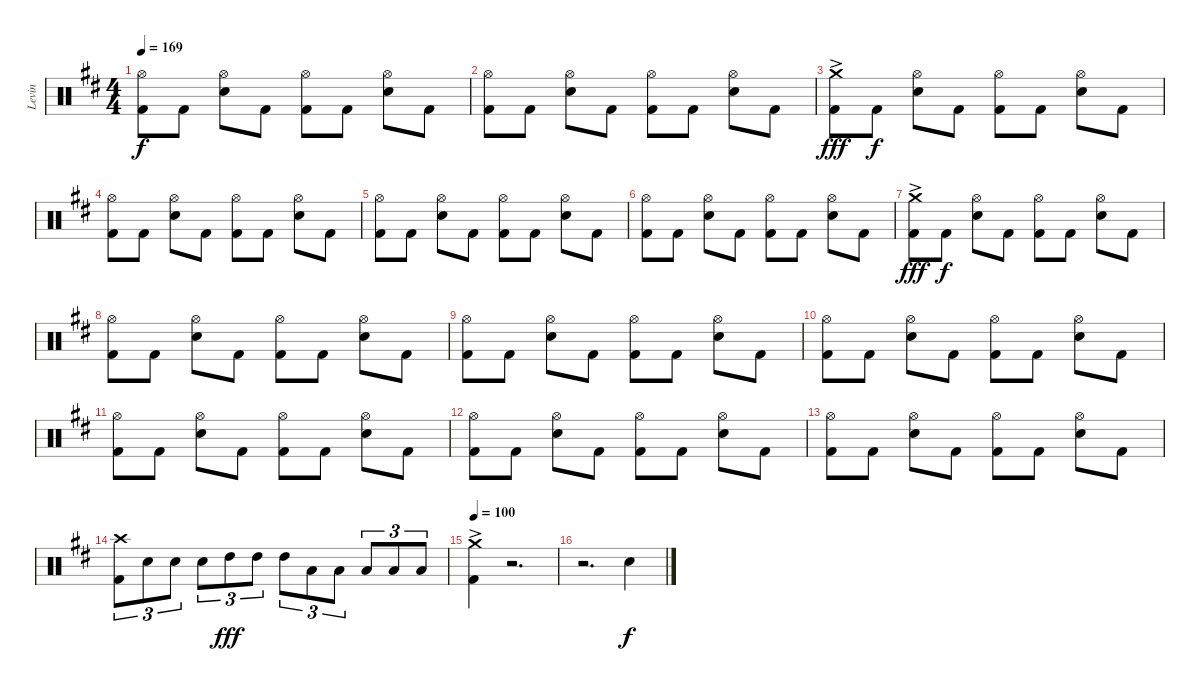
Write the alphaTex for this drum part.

\track ("Levin" "Levin") {instrument percussion}
\staff {score}
\articulation defaults
\ts (4 4)
\tempo 169
\clef neutral
\ks d
("Hi-Hat (open)" "Kick (hit) 2").8{dy f} "Kick (hit) 2".8 ("Hi-Hat (open)" "Electric Snare (hit)").8 "Kick (hit) 2".8 ("Hi-Hat (open)" "Kick (hit) 2").8 "Kick (hit) 2".8 ("Hi-Hat (open)" "Electric Snare (hit)").8 "Kick (hit) 2".8 |
("Hi-Hat (open)" "Kick (hit) 2").8 "Kick (hit) 2".8 ("Hi-Hat (open)" "Electric Snare (hit)").8 "Kick (hit) 2".8 ("Hi-Hat (open)" "Kick (hit) 2").8 "Kick (hit) 2".8 ("Hi-Hat (open)" "Electric Snare (hit)").8 "Kick (hit) 2".8 |
("Crash medium (hit)"{ac} "Kick (hit) 2").8{dy fff} "Kick (hit) 2".8{dy f} ("Hi-Hat (open)" "Electric Snare (hit)").8 "Kick (hit) 2".8 ("Hi-Hat (open)" "Kick (hit) 2").8 "Kick (hit) 2".8 ("Hi-Hat (open)" "Electric Snare (hit)").8 "Kick (hit) 2".8 |
("Hi-Hat (open)" "Kick (hit) 2").8 "Kick (hit) 2".8 ("Hi-Hat (open)" "Electric Snare (hit)").8 "Kick (hit) 2".8 ("Hi-Hat (open)" "Kick (hit) 2").8 "Kick (hit) 2".8 ("Hi-Hat (open)" "Electric Snare (hit)").8 "Kick (hit) 2".8 |
("Hi-Hat (open)" "Kick (hit) 2").8 "Kick (hit) 2".8 ("Hi-Hat (open)" "Electric Snare (hit)").8 "Kick (hit) 2".8 ("Hi-Hat (open)" "Kick (hit) 2").8 "Kick (hit) 2".8 ("Hi-Hat (open)" "Electric Snare (hit)").8 "Kick (hit) 2".8 |
("Hi-Hat (open)" "Kick (hit) 2").8 "Kick (hit) 2".8 ("Hi-Hat (open)" "Electric Snare (hit)").8 "Kick (hit) 2".8 ("Hi-Hat (open)" "Kick (hit) 2").8 "Kick (hit) 2".8 ("Hi-Hat (open)" "Electric Snare (hit)").8 "Kick (hit) 2".8 |
("Crash medium (hit)"{ac} "Kick (hit) 2").8{dy fff} "Kick (hit) 2".8{dy f} ("Hi-Hat (open)" "Electric Snare (hit)").8 "Kick (hit) 2".8 ("Hi-Hat (open)" "Kick (hit) 2").8 "Kick (hit) 2".8 ("Hi-Hat (open)" "Electric Snare (hit)").8 "Kick (hit) 2".8 |
("Hi-Hat (open)" "Kick (hit) 2").8 "Kick (hit) 2".8 ("Hi-Hat (open)" "Electric Snare (hit)").8 "Kick (hit) 2".8 ("Hi-Hat (open)" "Kick (hit) 2").8 "Kick (hit) 2".8 ("Hi-Hat (open)" "Electric Snare (hit)").8 "Kick (hit) 2".8 |
("Hi-Hat (open)" "Kick (hit) 2").8 "Kick (hit) 2".8 ("Hi-Hat (open)" "Electric Snare (hit)").8 "Kick (hit) 2".8 ("Hi-Hat (open)" "Kick (hit) 2").8 "Kick (hit) 2".8 ("Hi-Hat (open)" "Electric Snare (hit)").8 "Kick (hit) 2".8 |
("Hi-Hat (open)" "Kick (hit) 2").8 "Kick (hit) 2".8 ("Hi-Hat (open)" "Electric Snare (hit)").8 "Kick (hit) 2".8 ("Hi-Hat (open)" "Kick (hit) 2").8 "Kick (hit) 2".8 ("Hi-Hat (open)" "Electric Snare (hit)").8 "Kick (hit) 2".8 |
("Hi-Hat (open)" "Kick (hit) 2").8 "Kick (hit) 2".8 ("Hi-Hat (open)" "Electric Snare (hit)").8 "Kick (hit) 2".8 ("Hi-Hat (open)" "Kick (hit) 2").8 "Kick (hit) 2".8 ("Hi-Hat (open)" "Electric Snare (hit)").8 "Kick (hit) 2".8 |
("Hi-Hat (open)" "Kick (hit) 2").8 "Kick (hit) 2".8 ("Hi-Hat (open)" "Electric Snare (hit)").8 "Kick (hit) 2".8 ("Hi-Hat (open)" "Kick (hit) 2").8 "Kick (hit) 2".8 ("Hi-Hat (open)" "Electric Snare (hit)").8 "Kick (hit) 2".8 |
("Hi-Hat (open)" "Kick (hit) 2").8 "Kick (hit) 2".8 ("Hi-Hat (open)" "Electric Snare (hit)").8 "Kick (hit) 2".8 ("Hi-Hat (open)" "Kick (hit) 2").8 "Kick (hit) 2".8 ("Hi-Hat (open)" "Electric Snare (hit)").8 "Kick (hit) 2".8 |
("Crash high (hit)" "Kick (hit) 2").8{tu (3 2)} "Electric Snare (hit)".8{tu (3 2)} "Electric Snare (hit)".8{tu (3 2)} "Electric Snare (hit)".8{tu (3 2)} "High Tom (hit)".8{tu (3 2) dy fff} "High Tom (hit)".8{tu (3 2)} "High Tom (hit)".8{tu (3 2)} "Low Tom (hit)".8{tu (3 2)} "Low Tom (hit)".8{tu (3 2)} "Low Tom (hit)".8{tu (3 2)} "Low Floor Tom (hit)".8{tu (3 2)} "Low Floor Tom (hit)".8{tu (3 2)} |
\tempo 100
("Crash medium (hit)"{ac} "Kick (hit) 2").4 r.2{d} |
r.2{d} "Electric Snare (hit)".4{dy f}
